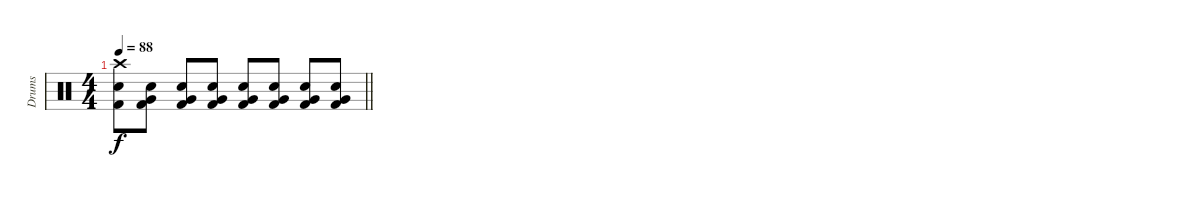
\track ("Drums" "Drums") {instrument percussion}
\staff {score}
\articulation defaults
\ts (4 4)
\tempo 88
\clef neutral
\barLineRight lightlight
\ks c
("Kick (hit) 2" "Electric Snare (hit)" "Crash high (hit)").8{dy f} ("Kick (hit) 2" "Very Low Tom (hit)" "Electric Snare (hit)").8 ("Kick (hit) 2" "Very Low Tom (hit)" "Electric Snare (hit)").8 ("Kick (hit) 2" "Very Low Tom (hit)" "Electric Snare (hit)").8 ("Kick (hit) 2" "Very Low Tom (hit)" "Electric Snare (hit)").8 ("Kick (hit) 2" "Very Low Tom (hit)" "Electric Snare (hit)").8 ("Kick (hit) 2" "Very Low Tom (hit)" "Electric Snare (hit)").8 ("Kick (hit) 2" "Very Low Tom (hit)" "Electric Snare (hit)").8
